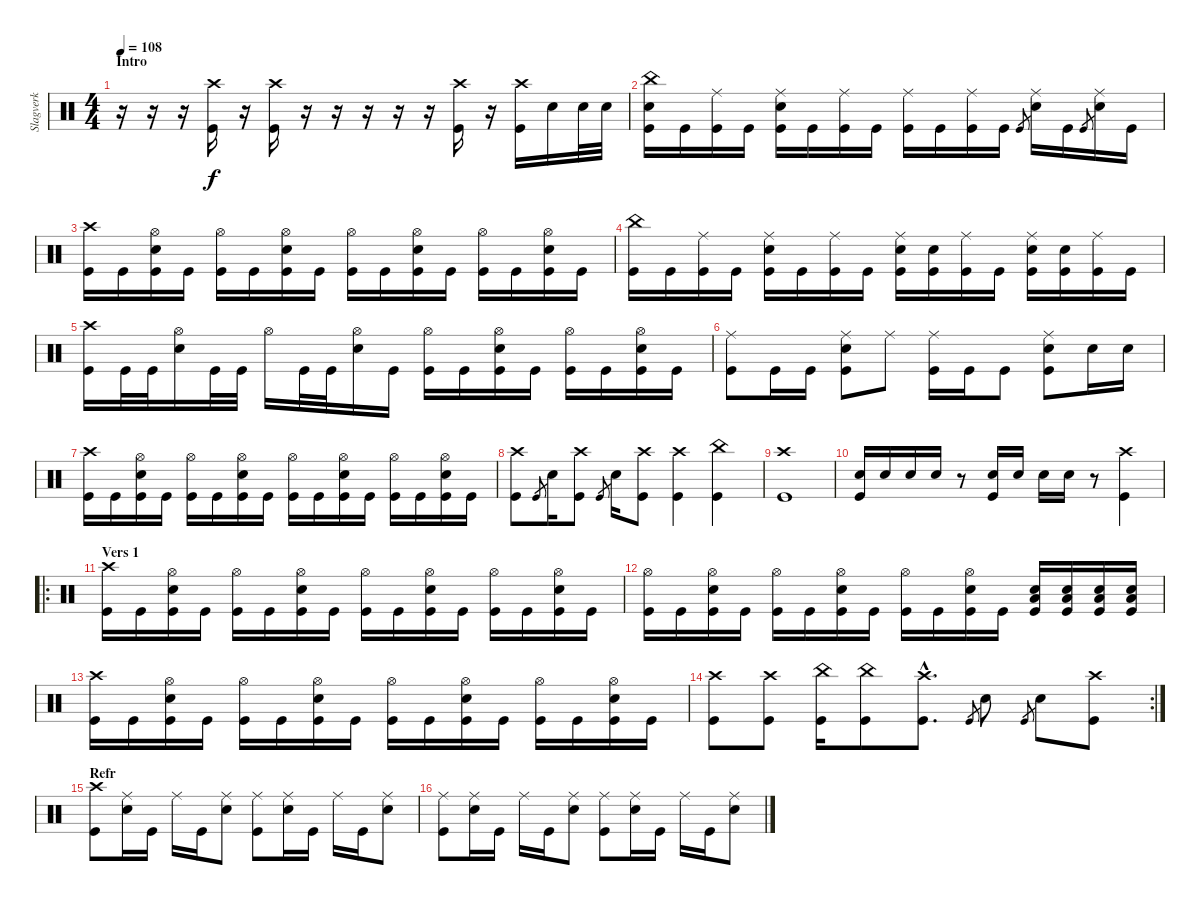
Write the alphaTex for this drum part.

\track ("Slagverk" "Slagverk") {instrument percussion}
\staff {score}
\articulation defaults
\ts (4 4)
\section ("" "Intro")
\tempo 108
\clef neutral
\ks c
r.16{dy f} r.16 r.16 ("Crash high (hit)" "Kick (hit)").16 r.16 ("Crash high (hit)" "Kick (hit)").16 r.16 r.16 r.16 r.16 r.16 ("Crash high (hit)" "Kick (hit)").16 r.16 ("Crash high (hit)" "Kick (hit)").16 "Electric Snare (hit)".16 "Electric Snare (hit)".32 "Electric Snare (hit)".32 |
("China (hit)" "Electric Snare (hit)" "Kick (hit)").16 "Kick (hit)".16 ("Ride (middle)" "Kick (hit)").16 "Kick (hit)".16 ("Ride (middle)" "Electric Snare (hit)" "Kick (hit)").16 "Kick (hit)".16 ("Ride (middle)" "Kick (hit)").16 "Kick (hit)".16 ("Ride (middle)" "Kick (hit)").16 "Kick (hit)".16 ("Ride (middle)" "Kick (hit)").16 "Kick (hit)".16 "Kick (hit)"{sl}.8{gr} ("Ride (middle)" "Electric Snare (hit)").16 "Kick (hit)".16 "Kick (hit)"{sl}.8{gr} ("Ride (middle)" "Electric Snare (hit)").16 "Kick (hit)".16 |
("Crash high (hit)" "Kick (hit)").16 "Kick (hit)".16 ("Hi-Hat (open)" "Electric Snare (hit)" "Kick (hit)").16 "Kick (hit)".16 ("Hi-Hat (open)" "Kick (hit)").16 "Kick (hit)".16 ("Hi-Hat (open)" "Electric Snare (hit)" "Kick (hit)").16 "Kick (hit)".16 ("Hi-Hat (open)" "Kick (hit)").16 "Kick (hit)".16 ("Hi-Hat (open)" "Electric Snare (hit)" "Kick (hit)").16 "Kick (hit)".16 ("Hi-Hat (open)" "Kick (hit)").16 "Kick (hit)".16 ("Hi-Hat (open)" "Electric Snare (hit)" "Kick (hit)").16 "Kick (hit)".16 |
("China (hit)" "Kick (hit)").16 "Kick (hit)".16 ("Ride (middle)" "Kick (hit)").16 "Kick (hit)".16 ("Ride (middle)" "Electric Snare (hit)" "Kick (hit)").16 "Kick (hit)".16 ("Ride (middle)" "Kick (hit)").16 "Kick (hit)".16 ("Ride (middle)" "Electric Snare (hit)" "Kick (hit)").16 ("Electric Snare (hit)" "Kick (hit)").16 ("Ride (middle)" "Kick (hit)").16 "Kick (hit)".16 ("Ride (middle)" "Electric Snare (hit)" "Kick (hit)").16 ("Electric Snare (hit)" "Kick (hit)").16 ("Ride (middle)" "Kick (hit)").16 "Kick (hit)".16 |
("Crash high (hit)" "Kick (hit)").16 "Kick (hit)".32 "Kick (hit)".32 ("Hi-Hat (open)" "Electric Snare (hit)").16 "Kick (hit)".32 "Kick (hit)".32 "Hi-Hat (open)".16 "Kick (hit)".32 "Kick (hit)".32 ("Hi-Hat (open)" "Electric Snare (hit)").16 "Kick (hit)".16 ("Hi-Hat (open)" "Kick (hit)").16 "Kick (hit)".16 ("Hi-Hat (open)" "Electric Snare (hit)" "Kick (hit)").16 "Kick (hit)".16 ("Hi-Hat (open)" "Kick (hit)").16 "Kick (hit)".16 ("Hi-Hat (open)" "Electric Snare (hit)" "Kick (hit)").16 "Kick (hit)".16 |
("Ride (middle)" "Kick (hit)").8 "Kick (hit)".16 "Kick (hit)".16 ("Ride (middle)" "Electric Snare (hit)" "Kick (hit)").8 "Ride (middle)".8 ("Ride (middle)" "Kick (hit)").16 "Kick (hit)".16 "Kick (hit)".8 ("Ride (middle)" "Electric Snare (hit)" "Kick (hit)").8 "Electric Snare (hit)".16 "Electric Snare (hit)".16 |
("Crash high (hit)" "Kick (hit)").16 "Kick (hit)".16 ("Hi-Hat (open)" "Electric Snare (hit)" "Kick (hit)").16 "Kick (hit)".16 ("Hi-Hat (open)" "Kick (hit)").16 "Kick (hit)".16 ("Hi-Hat (open)" "Electric Snare (hit)" "Kick (hit)").16 "Kick (hit)".16 ("Hi-Hat (open)" "Kick (hit)").16 "Kick (hit)".16 ("Hi-Hat (open)" "Electric Snare (hit)" "Kick (hit)").16 "Kick (hit)".16 ("Hi-Hat (open)" "Kick (hit)").16 "Kick (hit)".16 ("Hi-Hat (open)" "Electric Snare (hit)" "Kick (hit)").16 "Kick (hit)".16 |
("Crash high (hit)" "Kick (hit)").8 "Kick (hit)"{sl}.8{gr} "Electric Snare (hit)".16 ("Crash high (hit)" "Kick (hit)").8 "Kick (hit)"{sl}.8{gr} "Electric Snare (hit)".16 ("Crash high (hit)" "Kick (hit)").8 ("Crash high (hit)" "Kick (hit)").4 ("China (hit)" "Kick (hit)").4 |
("Crash high (hit)" "Kick (hit)").1 |
("Electric Snare (hit)" "Kick (hit)").16 "Electric Snare (hit)".16 "Electric Snare (hit)".16 "Electric Snare (hit)".16 r.8 ("Electric Snare (hit)" "Kick (hit)").16 "Electric Snare (hit)".16 "Electric Snare (hit)".16 "Electric Snare (hit)".16 r.8 ("Crash high (hit)" "Kick (hit)").4 |
\ro
\section ("" "Vers 1")
("Crash high (hit)" "Kick (hit)").16 "Kick (hit)".16 ("Hi-Hat (open)" "Electric Snare (hit)" "Kick (hit)").16 "Kick (hit)".16 ("Hi-Hat (open)" "Kick (hit)").16 "Kick (hit)".16 ("Hi-Hat (open)" "Electric Snare (hit)" "Kick (hit)").16 "Kick (hit)".16 ("Hi-Hat (open)" "Kick (hit)").16 "Kick (hit)".16 ("Hi-Hat (open)" "Electric Snare (hit)" "Kick (hit)").16 "Kick (hit)".16 ("Hi-Hat (open)" "Kick (hit)").16 "Kick (hit)".16 ("Hi-Hat (open)" "Electric Snare (hit)" "Kick (hit)").16 "Kick (hit)".16 |
("Hi-Hat (open)" "Kick (hit)").16 "Kick (hit)".16 ("Hi-Hat (open)" "Electric Snare (hit)" "Kick (hit)").16 "Kick (hit)".16 ("Hi-Hat (open)" "Kick (hit)").16 "Kick (hit)".16 ("Hi-Hat (open)" "Electric Snare (hit)" "Kick (hit)").16 "Kick (hit)".16 ("Hi-Hat (open)" "Kick (hit)").16 "Kick (hit)".16 ("Hi-Hat (open)" "Electric Snare (hit)" "Kick (hit)").16 "Kick (hit)".16 ("Electric Snare (hit)" "Low Floor Tom (hit)" "Kick (hit)").16 ("Electric Snare (hit)" "Low Floor Tom (hit)" "Kick (hit)").16 ("Electric Snare (hit)" "Low Floor Tom (hit)" "Kick (hit)").16 ("Electric Snare (hit)" "Low Floor Tom (hit)" "Kick (hit)").16 |
("Crash high (hit)" "Kick (hit)").16 "Kick (hit)".16 ("Hi-Hat (open)" "Electric Snare (hit)" "Kick (hit)").16 "Kick (hit)".16 ("Hi-Hat (open)" "Kick (hit)").16 "Kick (hit)".16 ("Hi-Hat (open)" "Electric Snare (hit)" "Kick (hit)").16 "Kick (hit)".16 ("Hi-Hat (open)" "Kick (hit)").16 "Kick (hit)".16 ("Hi-Hat (open)" "Electric Snare (hit)" "Kick (hit)").16 "Kick (hit)".16 ("Hi-Hat (open)" "Kick (hit)").16 "Kick (hit)".16 ("Hi-Hat (open)" "Electric Snare (hit)" "Kick (hit)").16 "Kick (hit)".16 |
\rc 2
("Crash high (hit)" "Kick (hit)").8 ("Crash high (hit)" "Kick (hit)").8 ("China (hit)" "Kick (hit)").16 ("China (hit)" "Kick (hit)").8 ("Crash high (hit)"{hac} "Kick (hit)"{hac}).8{d} "Kick (hit)"{sl}.8{gr} "Electric Snare (hit)".8 "Kick (hit)"{sl}.8{gr} "Electric Snare (hit)".8 ("Crash high (hit)" "Kick (hit)").8 |
\section ("" "Refr ")
("Crash high (hit)" "Kick (hit)").8 ("Ride (middle)" "Electric Snare (hit)").16 "Kick (hit)".16 "Ride (middle)".16 "Kick (hit)".16 ("Ride (middle)" "Electric Snare (hit)").8 ("Ride (middle)" "Kick (hit)").8 ("Ride (middle)" "Electric Snare (hit)").16 "Kick (hit)".16 "Ride (middle)".16 "Kick (hit)".16 ("Ride (middle)" "Electric Snare (hit)").8 |
("Ride (middle)" "Kick (hit)").8 ("Ride (middle)" "Electric Snare (hit)").16 "Kick (hit)".16 "Ride (middle)".16 "Kick (hit)".16 ("Ride (middle)" "Electric Snare (hit)").8 ("Ride (middle)" "Kick (hit)").8 ("Ride (middle)" "Electric Snare (hit)").16 "Kick (hit)".16 "Ride (middle)".16 "Kick (hit)".16 ("Ride (middle)" "Electric Snare (hit)").8
